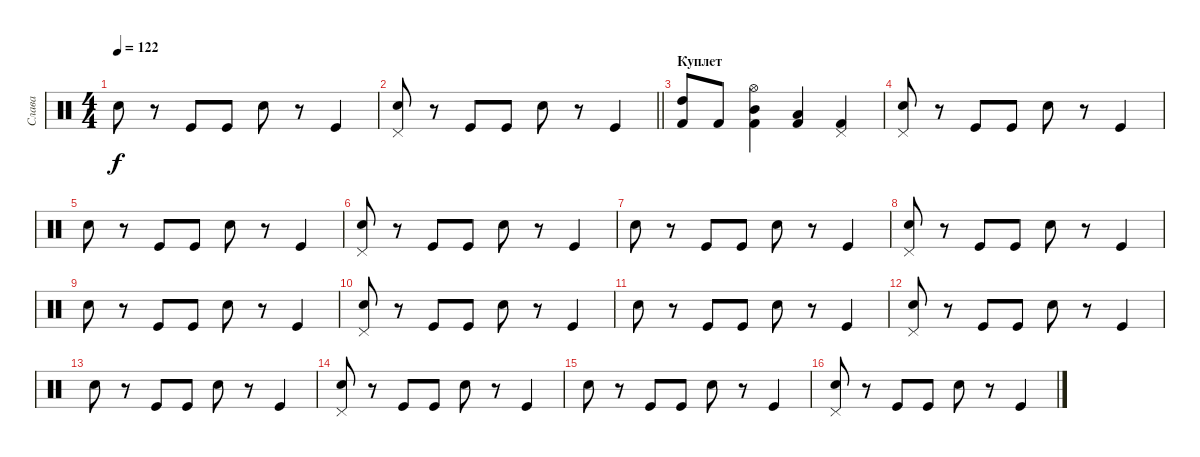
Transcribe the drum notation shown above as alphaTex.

\track ("Слава" "Слава") {instrument percussion}
\staff {score}
\articulation defaults
\ts (4 4)
\tempo 122
\clef neutral
\ks c "Electric Snare (hit)".8{dy f}
r.8 "Kick (hit)".8 "Kick (hit)".8 "Electric Snare (hit)".8 r.8 "Kick (hit)".4 |
\barLineRight lightlight
("Electric Snare (hit)" "Pedal Hi-Hat (hit)").8 r.8 "Kick (hit)".8 "Kick (hit)".8 "Electric Snare (hit)".8 r.8 "Kick (hit)".4 |
\section ("" "Куплет")
("Kick (hit) 2" "High Tom (hit)").8 "Kick (hit) 2".8 ("Kick (hit) 2" "Mid Tom (hit)" "Hi-Hat (open)").4 ("Kick (hit) 2" "Low Tom (hit)").4 ("Kick (hit) 2" "Pedal Hi-Hat (hit)").4 |
("Electric Snare (hit)" "Pedal Hi-Hat (hit)").8 r.8 "Kick (hit)".8 "Kick (hit)".8 "Electric Snare (hit)".8 r.8 "Kick (hit)".4 |
"Electric Snare (hit)".8 r.8 "Kick (hit)".8 "Kick (hit)".8 "Electric Snare (hit)".8 r.8 "Kick (hit)".4 |
("Electric Snare (hit)" "Pedal Hi-Hat (hit)").8 r.8 "Kick (hit)".8 "Kick (hit)".8 "Electric Snare (hit)".8 r.8 "Kick (hit)".4 |
"Electric Snare (hit)".8 r.8 "Kick (hit)".8 "Kick (hit)".8 "Electric Snare (hit)".8 r.8 "Kick (hit)".4 |
("Electric Snare (hit)" "Pedal Hi-Hat (hit)").8 r.8 "Kick (hit)".8 "Kick (hit)".8 "Electric Snare (hit)".8 r.8 "Kick (hit)".4 |
"Electric Snare (hit)".8 r.8 "Kick (hit)".8 "Kick (hit)".8 "Electric Snare (hit)".8 r.8 "Kick (hit)".4 |
("Electric Snare (hit)" "Pedal Hi-Hat (hit)").8 r.8 "Kick (hit)".8 "Kick (hit)".8 "Electric Snare (hit)".8 r.8 "Kick (hit)".4 |
"Electric Snare (hit)".8 r.8 "Kick (hit)".8 "Kick (hit)".8 "Electric Snare (hit)".8 r.8 "Kick (hit)".4 |
("Electric Snare (hit)" "Pedal Hi-Hat (hit)").8 r.8 "Kick (hit)".8 "Kick (hit)".8 "Electric Snare (hit)".8 r.8 "Kick (hit)".4 |
"Electric Snare (hit)".8 r.8 "Kick (hit)".8 "Kick (hit)".8 "Electric Snare (hit)".8 r.8 "Kick (hit)".4 |
("Electric Snare (hit)" "Pedal Hi-Hat (hit)").8 r.8 "Kick (hit)".8 "Kick (hit)".8 "Electric Snare (hit)".8 r.8 "Kick (hit)".4 |
"Electric Snare (hit)".8 r.8 "Kick (hit)".8 "Kick (hit)".8 "Electric Snare (hit)".8 r.8 "Kick (hit)".4 |
("Electric Snare (hit)" "Pedal Hi-Hat (hit)").8 r.8 "Kick (hit)".8 "Kick (hit)".8 "Electric Snare (hit)".8 r.8 "Kick (hit)".4
